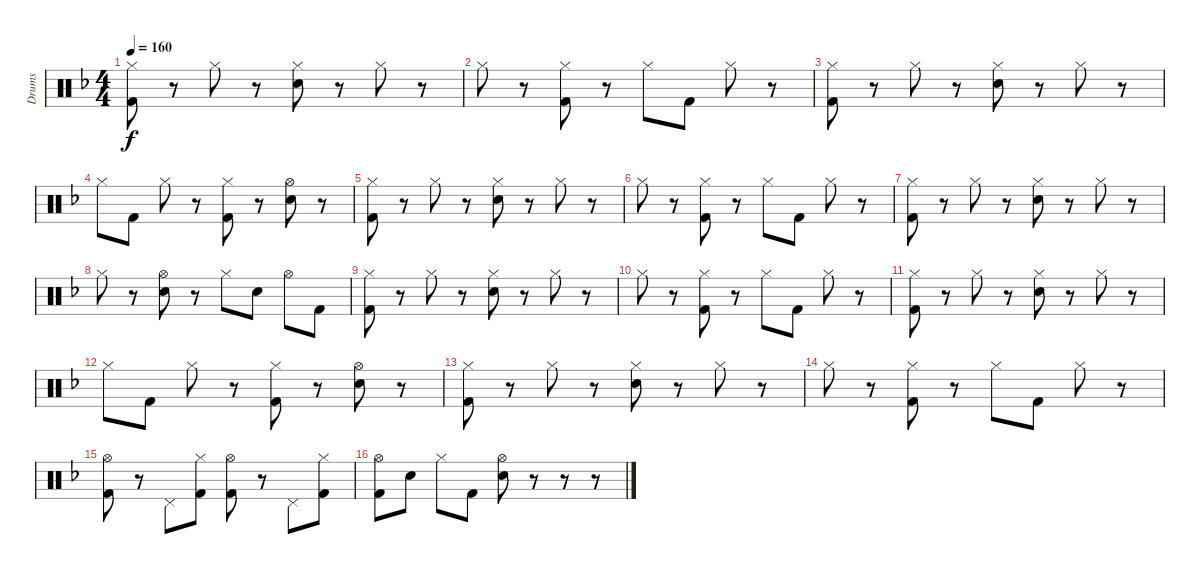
\track ("Drums" "Drums") {instrument percussion}
\staff {score}
\articulation defaults
\ts (4 4)
\tempo 160
\clef neutral
\ks dminor
("Hi-Hat (closed)" "Kick (hit) 2").8{dy f} r.8 "Hi-Hat (closed)".8 r.8 ("Hi-Hat (closed)" "Electric Snare (hit)").8 r.8 "Hi-Hat (closed)".8 r.8 |
"Hi-Hat (closed)".8 r.8 ("Hi-Hat (closed)" "Kick (hit) 2").8 r.8 "Hi-Hat (closed)".8 "Kick (hit) 2".8 "Hi-Hat (closed)".8 r.8 |
("Hi-Hat (closed)" "Kick (hit) 2").8 r.8 "Hi-Hat (closed)".8 r.8 ("Hi-Hat (closed)" "Electric Snare (hit)").8 r.8 "Hi-Hat (closed)".8 r.8 |
"Hi-Hat (closed)".8 "Kick (hit) 2".8 "Hi-Hat (closed)".8 r.8 ("Hi-Hat (closed)" "Kick (hit) 2").8 r.8 ("Hi-Hat (open)" "Electric Snare (hit)").8 r.8 |
("Hi-Hat (closed)" "Kick (hit) 2").8 r.8 "Hi-Hat (closed)".8 r.8 ("Hi-Hat (closed)" "Electric Snare (hit)").8 r.8 "Hi-Hat (closed)".8 r.8 |
"Hi-Hat (closed)".8 r.8 ("Hi-Hat (closed)" "Kick (hit) 2").8 r.8 "Hi-Hat (closed)".8 "Kick (hit) 2".8 "Hi-Hat (closed)".8 r.8 |
("Hi-Hat (closed)" "Kick (hit) 2").8 r.8 "Hi-Hat (closed)".8 r.8 ("Hi-Hat (closed)" "Electric Snare (hit)").8 r.8 "Hi-Hat (closed)".8 r.8 |
"Hi-Hat (closed)".8 r.8 ("Hi-Hat (open)" "Electric Snare (hit)").8 r.8 "Hi-Hat (closed)".8 "Electric Snare (hit)".8 "Hi-Hat (open)".8 "Kick (hit) 2".8 |
("Hi-Hat (closed)" "Kick (hit) 2").8 r.8 "Hi-Hat (closed)".8 r.8 ("Hi-Hat (closed)" "Electric Snare (hit)").8 r.8 "Hi-Hat (closed)".8 r.8 |
"Hi-Hat (closed)".8 r.8 ("Hi-Hat (closed)" "Kick (hit) 2").8 r.8 "Hi-Hat (closed)".8 "Kick (hit) 2".8 "Hi-Hat (closed)".8 r.8 |
("Hi-Hat (closed)" "Kick (hit) 2").8 r.8 "Hi-Hat (closed)".8 r.8 ("Hi-Hat (closed)" "Electric Snare (hit)").8 r.8 "Hi-Hat (closed)".8 r.8 |
"Hi-Hat (closed)".8 "Kick (hit) 2".8 "Hi-Hat (closed)".8 r.8 ("Hi-Hat (closed)" "Kick (hit) 2").8 r.8 ("Hi-Hat (open)" "Electric Snare (hit)").8 r.8 |
("Hi-Hat (closed)" "Kick (hit) 2").8 r.8 "Hi-Hat (closed)".8 r.8 ("Hi-Hat (closed)" "Electric Snare (hit)").8 r.8 "Hi-Hat (closed)".8 r.8 |
"Hi-Hat (closed)".8 r.8 ("Hi-Hat (closed)" "Kick (hit) 2").8 r.8 "Hi-Hat (closed)".8 "Kick (hit) 2".8 "Hi-Hat (closed)".8 r.8 |
("Hi-Hat (open)" "Kick (hit) 2").8 r.8 "Pedal Hi-Hat (hit)".8 ("Hi-Hat (closed)" "Kick (hit) 2").8 ("Hi-Hat (open)" "Kick (hit) 2").8 r.8 "Pedal Hi-Hat (hit)".8 ("Hi-Hat (closed)" "Kick (hit) 2").8 |
("Hi-Hat (open)" "Kick (hit) 2").8 "Electric Snare (hit)".8 "Hi-Hat (closed)".8 "Kick (hit) 2".8 ("Hi-Hat (open)" "Electric Snare (hit)").8 r.8 r.8 r.8
